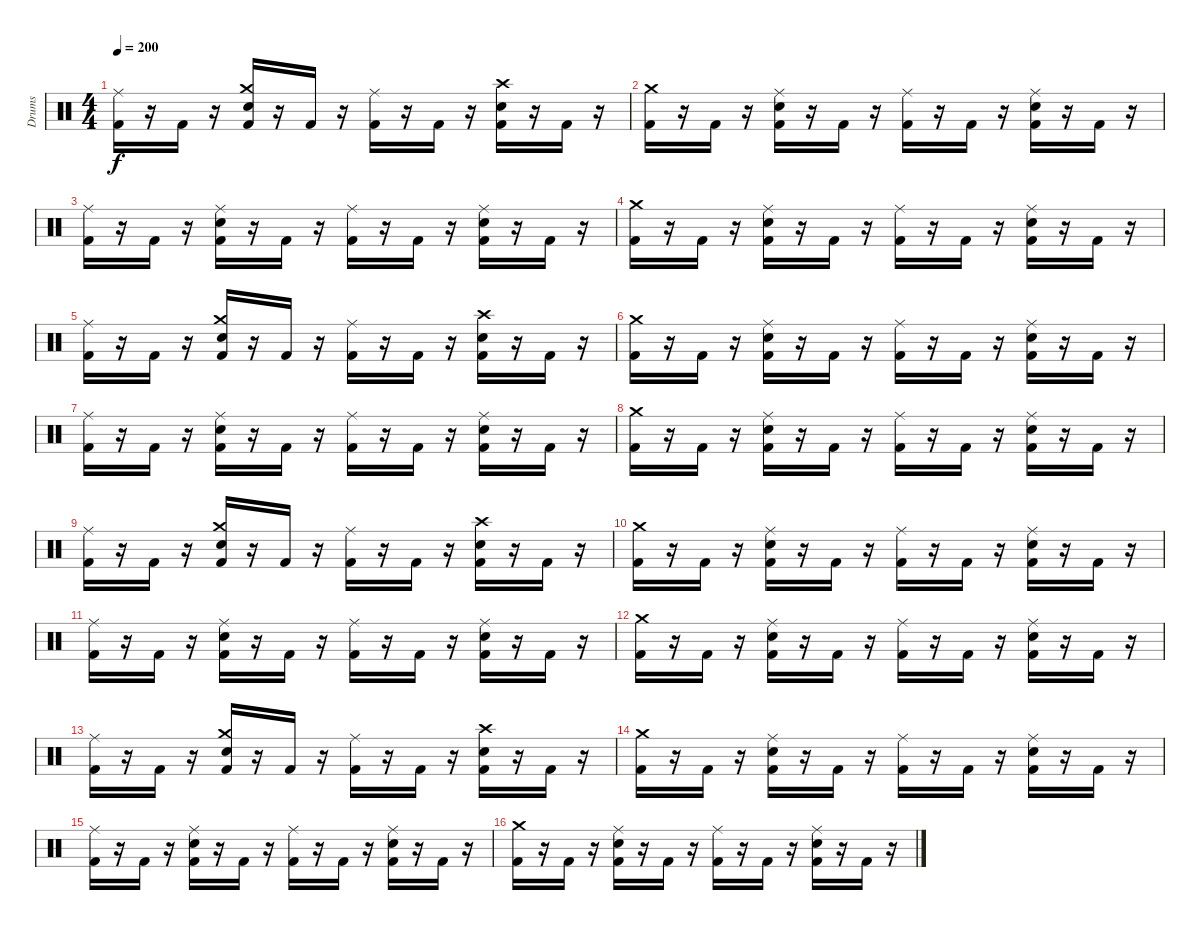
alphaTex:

\track ("Drums" "Drums") {instrument percussion}
\staff {score}
\articulation defaults
\ts (4 4)
\tempo 200
\clef neutral
\ks c
("Ride (middle)" "Kick (hit) 2").16{dy f} r.16 "Kick (hit) 2".16 r.16 ("Crash medium (hit)" "Snare (hit) 2" "Kick (hit) 2").16 r.16 "Kick (hit) 2".16 r.16 ("Ride (middle)" "Kick (hit) 2").16 r.16 "Kick (hit) 2".16 r.16 ("Crash high (hit)" "Snare (hit) 2" "Kick (hit) 2").16 r.16 "Kick (hit) 2".16 r.16 |
("Crash medium (hit)" "Kick (hit) 2").16 r.16 "Kick (hit) 2".16 r.16 ("Ride (middle)" "Snare (hit) 2" "Kick (hit) 2").16 r.16 "Kick (hit) 2".16 r.16 ("Ride (middle)" "Kick (hit) 2").16 r.16 "Kick (hit) 2".16 r.16 ("Ride (middle)" "Snare (hit) 2" "Kick (hit) 2").16 r.16 "Kick (hit) 2".16 r.16 |
("Ride (middle)" "Kick (hit) 2").16 r.16 "Kick (hit) 2".16 r.16 ("Ride (middle)" "Snare (hit) 2" "Kick (hit) 2").16 r.16 "Kick (hit) 2".16 r.16 ("Ride (middle)" "Kick (hit) 2").16 r.16 "Kick (hit) 2".16 r.16 ("Ride (middle)" "Snare (hit) 2" "Kick (hit) 2").16 r.16 "Kick (hit) 2".16 r.16 |
("Crash medium (hit)" "Kick (hit) 2").16 r.16 "Kick (hit) 2".16 r.16 ("Ride (middle)" "Snare (hit) 2" "Kick (hit) 2").16 r.16 "Kick (hit) 2".16 r.16 ("Ride (middle)" "Kick (hit) 2").16 r.16 "Kick (hit) 2".16 r.16 ("Ride (middle)" "Snare (hit) 2" "Kick (hit) 2").16 r.16 "Kick (hit) 2".16 r.16 |
("Ride (middle)" "Kick (hit) 2").16 r.16 "Kick (hit) 2".16 r.16 ("Crash medium (hit)" "Snare (hit) 2" "Kick (hit) 2").16 r.16 "Kick (hit) 2".16 r.16 ("Ride (middle)" "Kick (hit) 2").16 r.16 "Kick (hit) 2".16 r.16 ("Crash high (hit)" "Snare (hit) 2" "Kick (hit) 2").16 r.16 "Kick (hit) 2".16 r.16 |
("Crash medium (hit)" "Kick (hit) 2").16 r.16 "Kick (hit) 2".16 r.16 ("Ride (middle)" "Snare (hit) 2" "Kick (hit) 2").16 r.16 "Kick (hit) 2".16 r.16 ("Ride (middle)" "Kick (hit) 2").16 r.16 "Kick (hit) 2".16 r.16 ("Ride (middle)" "Snare (hit) 2" "Kick (hit) 2").16 r.16 "Kick (hit) 2".16 r.16 |
("Ride (middle)" "Kick (hit) 2").16 r.16 "Kick (hit) 2".16 r.16 ("Ride (middle)" "Snare (hit) 2" "Kick (hit) 2").16 r.16 "Kick (hit) 2".16 r.16 ("Ride (middle)" "Kick (hit) 2").16 r.16 "Kick (hit) 2".16 r.16 ("Ride (middle)" "Snare (hit) 2" "Kick (hit) 2").16 r.16 "Kick (hit) 2".16 r.16 |
("Crash medium (hit)" "Kick (hit) 2").16 r.16 "Kick (hit) 2".16 r.16 ("Ride (middle)" "Snare (hit) 2" "Kick (hit) 2").16 r.16 "Kick (hit) 2".16 r.16 ("Ride (middle)" "Kick (hit) 2").16 r.16 "Kick (hit) 2".16 r.16 ("Ride (middle)" "Snare (hit) 2" "Kick (hit) 2").16 r.16 "Kick (hit) 2".16 r.16 |
("Ride (middle)" "Kick (hit) 2").16 r.16 "Kick (hit) 2".16 r.16 ("Crash medium (hit)" "Snare (hit) 2" "Kick (hit) 2").16 r.16 "Kick (hit) 2".16 r.16 ("Ride (middle)" "Kick (hit) 2").16 r.16 "Kick (hit) 2".16 r.16 ("Crash high (hit)" "Snare (hit) 2" "Kick (hit) 2").16 r.16 "Kick (hit) 2".16 r.16 |
("Crash medium (hit)" "Kick (hit) 2").16 r.16 "Kick (hit) 2".16 r.16 ("Ride (middle)" "Snare (hit) 2" "Kick (hit) 2").16 r.16 "Kick (hit) 2".16 r.16 ("Ride (middle)" "Kick (hit) 2").16 r.16 "Kick (hit) 2".16 r.16 ("Ride (middle)" "Snare (hit) 2" "Kick (hit) 2").16 r.16 "Kick (hit) 2".16 r.16 |
("Ride (middle)" "Kick (hit) 2").16 r.16 "Kick (hit) 2".16 r.16 ("Ride (middle)" "Snare (hit) 2" "Kick (hit) 2").16 r.16 "Kick (hit) 2".16 r.16 ("Ride (middle)" "Kick (hit) 2").16 r.16 "Kick (hit) 2".16 r.16 ("Ride (middle)" "Snare (hit) 2" "Kick (hit) 2").16 r.16 "Kick (hit) 2".16 r.16 |
("Crash medium (hit)" "Kick (hit) 2").16 r.16 "Kick (hit) 2".16 r.16 ("Ride (middle)" "Snare (hit) 2" "Kick (hit) 2").16 r.16 "Kick (hit) 2".16 r.16 ("Ride (middle)" "Kick (hit) 2").16 r.16 "Kick (hit) 2".16 r.16 ("Ride (middle)" "Snare (hit) 2" "Kick (hit) 2").16 r.16 "Kick (hit) 2".16 r.16 |
("Ride (middle)" "Kick (hit) 2").16 r.16 "Kick (hit) 2".16 r.16 ("Crash medium (hit)" "Snare (hit) 2" "Kick (hit) 2").16 r.16 "Kick (hit) 2".16 r.16 ("Ride (middle)" "Kick (hit) 2").16 r.16 "Kick (hit) 2".16 r.16 ("Crash high (hit)" "Snare (hit) 2" "Kick (hit) 2").16 r.16 "Kick (hit) 2".16 r.16 |
("Crash medium (hit)" "Kick (hit) 2").16 r.16 "Kick (hit) 2".16 r.16 ("Ride (middle)" "Snare (hit) 2" "Kick (hit) 2").16 r.16 "Kick (hit) 2".16 r.16 ("Ride (middle)" "Kick (hit) 2").16 r.16 "Kick (hit) 2".16 r.16 ("Ride (middle)" "Snare (hit) 2" "Kick (hit) 2").16 r.16 "Kick (hit) 2".16 r.16 |
("Ride (middle)" "Kick (hit) 2").16 r.16 "Kick (hit) 2".16 r.16 ("Ride (middle)" "Snare (hit) 2" "Kick (hit) 2").16 r.16 "Kick (hit) 2".16 r.16 ("Ride (middle)" "Kick (hit) 2").16 r.16 "Kick (hit) 2".16 r.16 ("Ride (middle)" "Snare (hit) 2" "Kick (hit) 2").16 r.16 "Kick (hit) 2".16 r.16 |
("Crash medium (hit)" "Kick (hit) 2").16 r.16 "Kick (hit) 2".16 r.16 ("Ride (middle)" "Snare (hit) 2" "Kick (hit) 2").16 r.16 "Kick (hit) 2".16 r.16 ("Ride (middle)" "Kick (hit) 2").16 r.16 "Kick (hit) 2".16 r.16 ("Ride (middle)" "Snare (hit) 2" "Kick (hit) 2").16 r.16 "Kick (hit) 2".16 r.16
